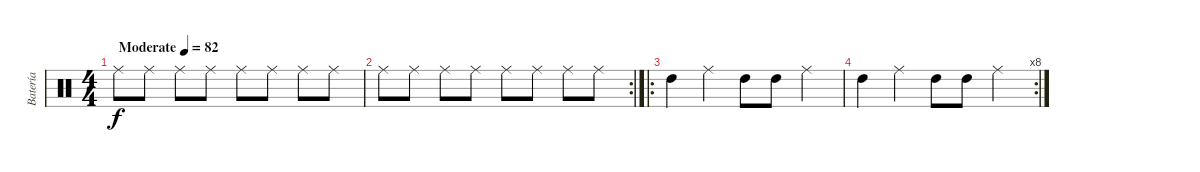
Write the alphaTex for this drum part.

\track ("Batería" "Batería") {instrument percussion bank 1}
\staff {score}
\articulation defaults
\ts (4 4)
\tempo (82 "Moderate")
\clef neutral
\ks c "Ride (middle)".8{dy f} "Ride (middle)".8 "Ride (middle)".8 "Ride (middle)".8 "Ride (middle)".8 "Ride (middle)".8 "Ride (middle)".8 "Ride (middle)".8
|
\rc 2 "Ride (middle)".8 "Ride (middle)".8 "Ride (middle)".8 "Ride (middle)".8 "Ride (middle)".8 "Ride (middle)".8 "Ride (middle)".8 "Ride (middle)".8
|
\ro "High Tom (hit)".4 "Ride (middle)".4 "High Tom (hit)".8 "High Tom (hit)".8 "Ride (middle)".4
|
\rc 8 "High Tom (hit)".4 "Ride (middle)".4 "High Tom (hit)".8 "High Tom (hit)".8 "Ride (middle)".4
